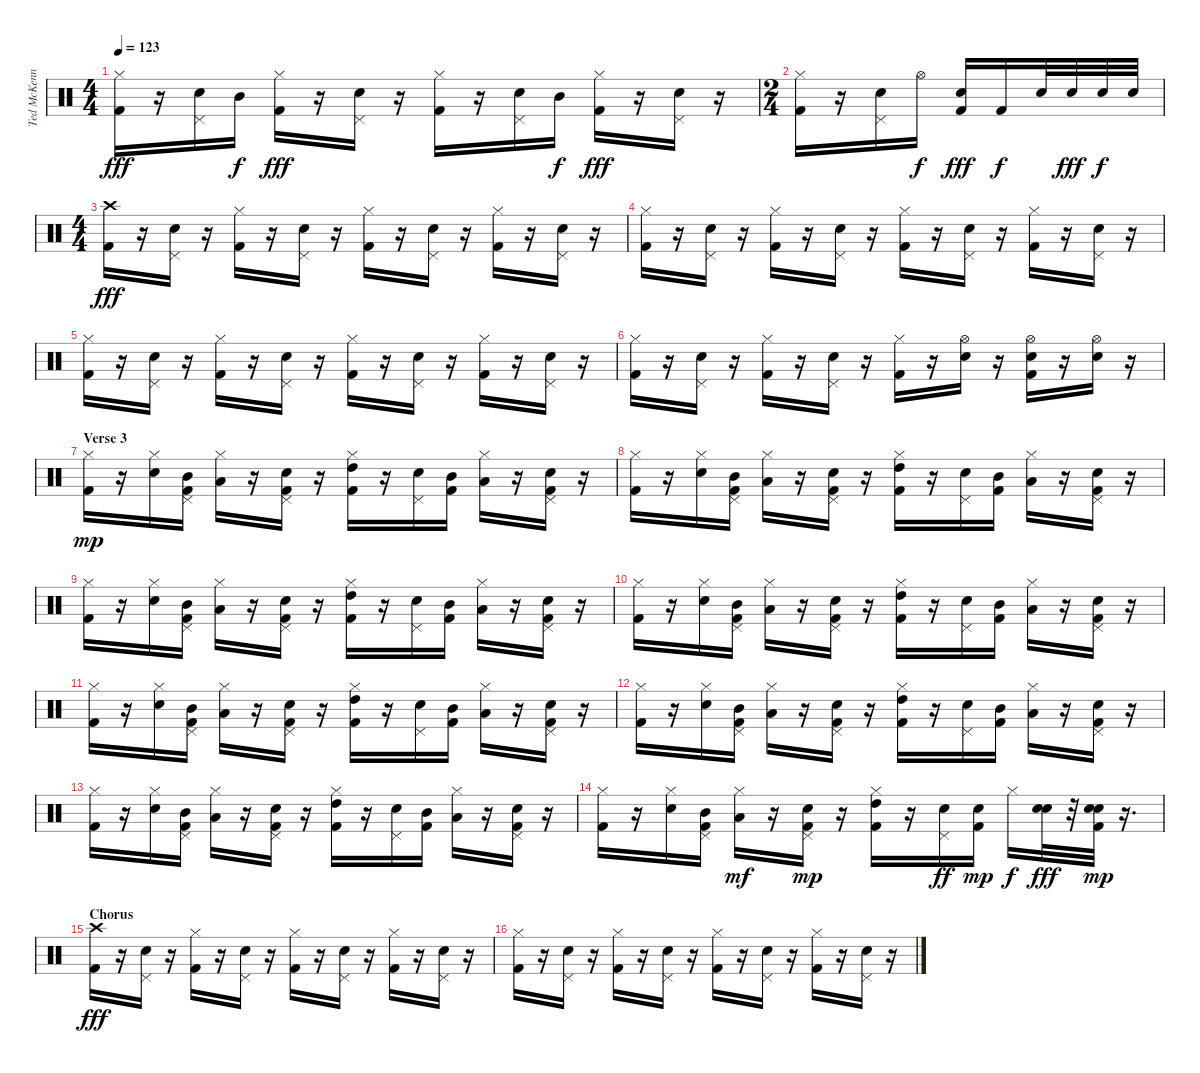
\track ("Ted McKenna" "Ted McKenn") {instrument percussion}
\staff {score}
\articulation defaults
\ts (4 4)
\tempo 123
\clef neutral
\ks c
("Hi-Hat (closed)" "Kick (hit) 2").16{dy fff} r.16 ("Snare (hit) 2" "Pedal Hi-Hat (hit)").16 "Mid Tom (hit)".16{dy f} ("Hi-Hat (closed)" "Kick (hit) 2").16{dy fff} r.16 ("Snare (hit) 2" "Pedal Hi-Hat (hit)").16 r.16 ("Hi-Hat (closed)" "Kick (hit) 2").16 r.16 ("Snare (hit) 2" "Pedal Hi-Hat (hit)").16 "Mid Tom (hit)".16{dy f} ("Hi-Hat (closed)" "Kick (hit) 2").16{dy fff} r.16 ("Snare (hit) 2" "Pedal Hi-Hat (hit)").16 r.16 |
\ts (2 4)
("Hi-Hat (closed)" "Kick (hit) 2").16 r.16 ("Snare (hit) 2" "Pedal Hi-Hat (hit)").16 "Hi-Hat (open)".16{dy f} ("Snare (hit) 2" "Kick (hit) 2").16{dy fff} "Kick (hit) 2".16{dy f} "Electric Snare (hit)".32 "Electric Snare (hit)".32{dy fff} "Electric Snare (hit)".32{dy f} "Electric Snare (hit)".32 |
\ts (4 4)
("Crash high (hit)" "Kick (hit) 2").16{dy fff} r.16 ("Snare (hit) 2" "Pedal Hi-Hat (hit)").16 r.16 ("Hi-Hat (closed)" "Kick (hit) 2").16 r.16 ("Snare (hit) 2" "Pedal Hi-Hat (hit)").16 r.16 ("Hi-Hat (closed)" "Kick (hit) 2").16 r.16 ("Snare (hit) 2" "Pedal Hi-Hat (hit)").16 r.16 ("Hi-Hat (closed)" "Kick (hit) 2").16 r.16 ("Snare (hit) 2" "Pedal Hi-Hat (hit)").16 r.16 |
("Hi-Hat (closed)" "Kick (hit) 2").16 r.16 ("Snare (hit) 2" "Pedal Hi-Hat (hit)").16 r.16 ("Hi-Hat (closed)" "Kick (hit) 2").16 r.16 ("Snare (hit) 2" "Pedal Hi-Hat (hit)").16 r.16 ("Hi-Hat (closed)" "Kick (hit) 2").16 r.16 ("Snare (hit) 2" "Pedal Hi-Hat (hit)").16 r.16 ("Hi-Hat (closed)" "Kick (hit) 2").16 r.16 ("Snare (hit) 2" "Pedal Hi-Hat (hit)").16 r.16 |
("Hi-Hat (closed)" "Kick (hit) 2").16 r.16 ("Snare (hit) 2" "Pedal Hi-Hat (hit)").16 r.16 ("Hi-Hat (closed)" "Kick (hit) 2").16 r.16 ("Snare (hit) 2" "Pedal Hi-Hat (hit)").16 r.16 ("Hi-Hat (closed)" "Kick (hit) 2").16 r.16 ("Snare (hit) 2" "Pedal Hi-Hat (hit)").16 r.16 ("Hi-Hat (closed)" "Kick (hit) 2").16 r.16 ("Snare (hit) 2" "Pedal Hi-Hat (hit)").16 r.16 |
("Hi-Hat (closed)" "Kick (hit) 2").16 r.16 ("Snare (hit) 2" "Pedal Hi-Hat (hit)").16 r.16 ("Hi-Hat (closed)" "Kick (hit) 2").16 r.16 ("Snare (hit) 2" "Pedal Hi-Hat (hit)").16 r.16 ("Hi-Hat (closed)" "Kick (hit) 2").16 r.16 ("Hi-Hat (open)" "Snare (hit) 2").16 r.16 ("Hi-Hat (open)" "Electric Snare (hit)" "Kick (hit) 2").16 r.16 ("Hi-Hat (open)" "Snare (hit) 2").16 r.16 |
\section ("" "Verse 3")
("Hi-Hat (closed)" "Kick (hit) 2").16{dy mp} r.16 ("Snare (hit) 2" "Hi-Hat (closed)").16 ("Mid Tom (hit)" "Pedal Hi-Hat (hit)" "Kick (hit) 2").16 ("Low Tom (hit)" "Hi-Hat (closed)").16 r.16 ("Snare (hit) 2" "Pedal Hi-Hat (hit)" "Kick (hit) 2").16 r.16 ("High Tom (hit)" "Hi-Hat (closed)" "Kick (hit) 2").16 r.16 ("Snare (hit) 2" "Pedal Hi-Hat (hit)").16 ("Mid Tom (hit)" "Kick (hit) 2").16 ("Low Tom (hit)" "Hi-Hat (closed)").16 r.16 ("Snare (hit) 2" "Pedal Hi-Hat (hit)" "Kick (hit) 2").16 r.16 |
("Hi-Hat (closed)" "Kick (hit) 2").16 r.16 ("Snare (hit) 2" "Hi-Hat (closed)").16 ("Mid Tom (hit)" "Pedal Hi-Hat (hit)" "Kick (hit) 2").16 ("Low Tom (hit)" "Hi-Hat (closed)").16 r.16 ("Snare (hit) 2" "Pedal Hi-Hat (hit)" "Kick (hit) 2").16 r.16 ("High Tom (hit)" "Hi-Hat (closed)" "Kick (hit) 2").16 r.16 ("Snare (hit) 2" "Pedal Hi-Hat (hit)").16 ("Mid Tom (hit)" "Kick (hit) 2").16 ("Low Tom (hit)" "Hi-Hat (closed)").16 r.16 ("Snare (hit) 2" "Pedal Hi-Hat (hit)" "Kick (hit) 2").16 r.16 |
("Hi-Hat (closed)" "Kick (hit) 2").16 r.16 ("Snare (hit) 2" "Hi-Hat (closed)").16 ("Mid Tom (hit)" "Pedal Hi-Hat (hit)" "Kick (hit) 2").16 ("Low Tom (hit)" "Hi-Hat (closed)").16 r.16 ("Snare (hit) 2" "Pedal Hi-Hat (hit)" "Kick (hit) 2").16 r.16 ("High Tom (hit)" "Hi-Hat (closed)" "Kick (hit) 2").16 r.16 ("Snare (hit) 2" "Pedal Hi-Hat (hit)").16 ("Mid Tom (hit)" "Kick (hit) 2").16 ("Low Tom (hit)" "Hi-Hat (closed)").16 r.16 ("Snare (hit) 2" "Pedal Hi-Hat (hit)" "Kick (hit) 2").16 r.16 |
("Hi-Hat (closed)" "Kick (hit) 2").16 r.16 ("Snare (hit) 2" "Hi-Hat (closed)").16 ("Mid Tom (hit)" "Pedal Hi-Hat (hit)" "Kick (hit) 2").16 ("Low Tom (hit)" "Hi-Hat (closed)").16 r.16 ("Snare (hit) 2" "Pedal Hi-Hat (hit)" "Kick (hit) 2").16 r.16 ("High Tom (hit)" "Hi-Hat (closed)" "Kick (hit) 2").16 r.16 ("Snare (hit) 2" "Pedal Hi-Hat (hit)").16 ("Mid Tom (hit)" "Kick (hit) 2").16 ("Low Tom (hit)" "Hi-Hat (closed)").16 r.16 ("Snare (hit) 2" "Pedal Hi-Hat (hit)" "Kick (hit) 2").16 r.16 |
("Hi-Hat (closed)" "Kick (hit) 2").16 r.16 ("Snare (hit) 2" "Hi-Hat (closed)").16 ("Mid Tom (hit)" "Pedal Hi-Hat (hit)" "Kick (hit) 2").16 ("Low Tom (hit)" "Hi-Hat (closed)").16 r.16 ("Snare (hit) 2" "Pedal Hi-Hat (hit)" "Kick (hit) 2").16 r.16 ("High Tom (hit)" "Hi-Hat (closed)" "Kick (hit) 2").16 r.16 ("Snare (hit) 2" "Pedal Hi-Hat (hit)").16 ("Mid Tom (hit)" "Kick (hit) 2").16 ("Low Tom (hit)" "Hi-Hat (closed)").16 r.16 ("Snare (hit) 2" "Pedal Hi-Hat (hit)" "Kick (hit) 2").16 r.16 |
("Hi-Hat (closed)" "Kick (hit) 2").16 r.16 ("Snare (hit) 2" "Hi-Hat (closed)").16 ("Mid Tom (hit)" "Pedal Hi-Hat (hit)" "Kick (hit) 2").16 ("Low Tom (hit)" "Hi-Hat (closed)").16 r.16 ("Snare (hit) 2" "Pedal Hi-Hat (hit)" "Kick (hit) 2").16 r.16 ("High Tom (hit)" "Hi-Hat (closed)" "Kick (hit) 2").16 r.16 ("Snare (hit) 2" "Pedal Hi-Hat (hit)").16 ("Mid Tom (hit)" "Kick (hit) 2").16 ("Low Tom (hit)" "Hi-Hat (closed)").16 r.16 ("Snare (hit) 2" "Pedal Hi-Hat (hit)" "Kick (hit) 2").16 r.16 |
("Hi-Hat (closed)" "Kick (hit) 2").16 r.16 ("Snare (hit) 2" "Hi-Hat (closed)").16 ("Mid Tom (hit)" "Pedal Hi-Hat (hit)" "Kick (hit) 2").16 ("Low Tom (hit)" "Hi-Hat (closed)").16 r.16 ("Snare (hit) 2" "Pedal Hi-Hat (hit)" "Kick (hit) 2").16 r.16 ("High Tom (hit)" "Hi-Hat (closed)" "Kick (hit) 2").16 r.16 ("Snare (hit) 2" "Pedal Hi-Hat (hit)").16 ("Mid Tom (hit)" "Kick (hit) 2").16 ("Low Tom (hit)" "Hi-Hat (closed)").16 r.16 ("Snare (hit) 2" "Pedal Hi-Hat (hit)" "Kick (hit) 2").16 r.16 |
("Hi-Hat (closed)" "Kick (hit) 2").16 r.16 ("Snare (hit) 2" "Hi-Hat (closed)").16 ("Mid Tom (hit)" "Pedal Hi-Hat (hit)" "Kick (hit) 2").16 ("Low Tom (hit)" "Hi-Hat (closed)").16{dy mf} r.16 ("Snare (hit) 2" "Pedal Hi-Hat (hit)" "Kick (hit) 2").16{dy mp} r.16 ("High Tom (hit)" "Hi-Hat (closed)" "Kick (hit) 2").16 r.16 ("Snare (hit) 2" "Pedal Hi-Hat (hit)").16{dy ff} ("Snare (hit) 2" "Kick (hit) 2").16{dy mp} "Hi-Hat (closed)".16{dy f} ("Electric Snare (hit)" "Electric Snare (hit)").32{dy fff} r.32 ("Electric Snare (hit)" "Electric Snare (hit)" "Kick (hit) 2").32{dy mp} r.16{d} |
\section ("" "Chorus")
("Crash high (hit)" "Kick (hit) 2").16{dy fff} r.16 ("Snare (hit) 2" "Pedal Hi-Hat (hit)").16 r.16 ("Hi-Hat (closed)" "Kick (hit) 2").16 r.16 ("Snare (hit) 2" "Pedal Hi-Hat (hit)").16 r.16 ("Hi-Hat (closed)" "Kick (hit) 2").16 r.16 ("Snare (hit) 2" "Pedal Hi-Hat (hit)").16 r.16 ("Hi-Hat (closed)" "Kick (hit) 2").16 r.16 ("Snare (hit) 2" "Pedal Hi-Hat (hit)").16 r.16 |
("Hi-Hat (closed)" "Kick (hit) 2").16 r.16 ("Snare (hit) 2" "Pedal Hi-Hat (hit)").16 r.16 ("Hi-Hat (closed)" "Kick (hit) 2").16 r.16 ("Snare (hit) 2" "Pedal Hi-Hat (hit)").16 r.16 ("Hi-Hat (closed)" "Kick (hit) 2").16 r.16 ("Snare (hit) 2" "Pedal Hi-Hat (hit)").16 r.16 ("Hi-Hat (closed)" "Kick (hit) 2").16 r.16 ("Snare (hit) 2" "Pedal Hi-Hat (hit)").16 r.16
